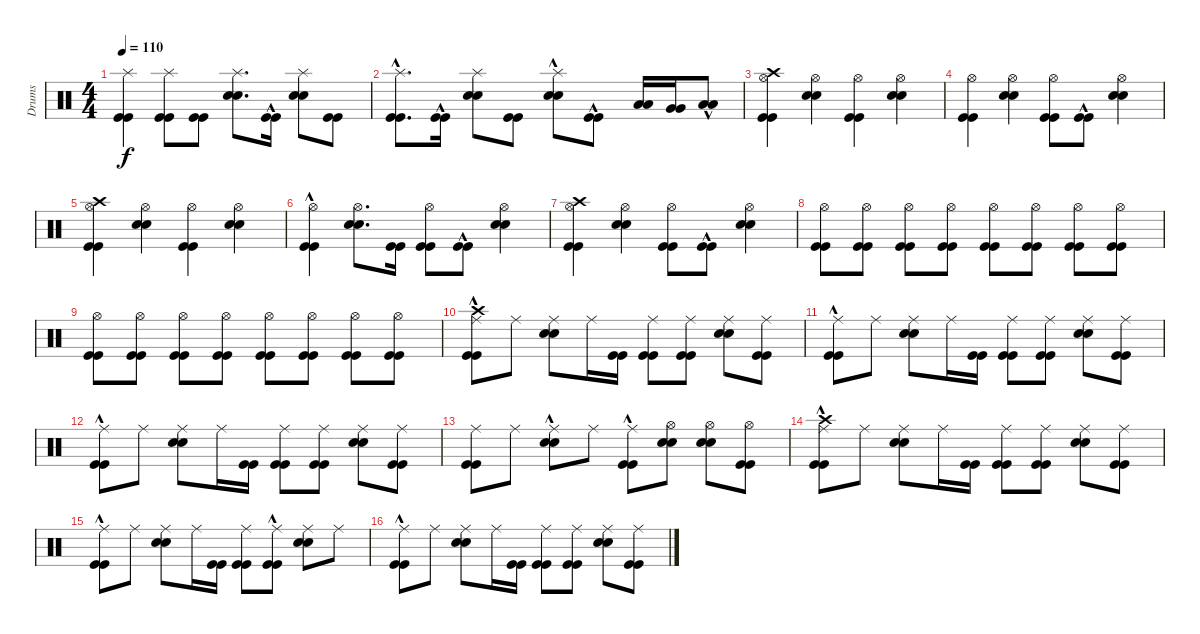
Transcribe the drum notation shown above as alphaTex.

\track ("Drums" "Drums") {instrument percussion}
\staff {score}
\articulation defaults
\ts (4 4)
\tempo 110
\clef neutral
\ks c
("Kick (hit)" "Kick (hit)" "Splash (hit)").4{dy f} ("Kick (hit)" "Kick (hit)" "Splash (hit)").8 ("Kick (hit)" "Kick (hit)").8 ("Snare (hit) 2" "Snare (hit) 2" "Splash (hit)").8{d} ("Kick (hit)"{hac} "Kick (hit)"{hac}).16 ("Snare (hit) 2" "Snare (hit) 2" "Splash (hit)").8 ("Kick (hit)" "Kick (hit)").8 |
("Kick (hit)"{hac} "Kick (hit)"{hac} "Splash (hit)").8{d} ("Kick (hit)"{hac} "Kick (hit)"{hac}).16 ("Snare (hit) 2" "Snare (hit) 2" "Splash (hit)").8 ("Kick (hit)" "Kick (hit)").8 ("Snare (hit) 2"{hac} "Snare (hit) 2"{hac} "Splash (hit)").8 ("Kick (hit)"{hac} "Kick (hit)"{hac}).8 ("Low Tom (hit)" "Low Tom (hit)").16 ("Very Low Tom (hit)" "Very Low Tom (hit)").16 ("Low Floor Tom (hit)"{hac} "Low Floor Tom (hit)"{hac}).8 |
("Kick (hit)" "Kick (hit)" "Hi-Hat (open)" "Crash high (hit)").4 ("Snare (hit) 2" "Snare (hit) 2" "Hi-Hat (open)").4 ("Kick (hit)" "Kick (hit)" "Hi-Hat (open)").4 ("Snare (hit) 2" "Snare (hit) 2" "Hi-Hat (open)").4 |
("Kick (hit)" "Kick (hit)" "Hi-Hat (open)").4 ("Snare (hit) 2" "Snare (hit) 2" "Hi-Hat (open)").4 ("Kick (hit)" "Kick (hit)" "Hi-Hat (open)").8 ("Kick (hit)"{hac} "Kick (hit)"{hac}).8 ("Snare (hit) 2" "Snare (hit) 2" "Hi-Hat (open)").4 |
("Kick (hit)" "Kick (hit)" "Hi-Hat (open)" "Crash high (hit)").4 ("Snare (hit) 2" "Snare (hit) 2" "Hi-Hat (open)").4 ("Kick (hit)" "Kick (hit)" "Hi-Hat (open)").4 ("Snare (hit) 2" "Snare (hit) 2" "Hi-Hat (open)").4 |
("Kick (hit)"{hac} "Kick (hit)"{hac} "Hi-Hat (open)").4 ("Snare (hit) 2" "Snare (hit) 2" "Hi-Hat (open)").8{d} ("Kick (hit)" "Kick (hit)").16 ("Kick (hit)" "Kick (hit)" "Hi-Hat (open)").8 ("Kick (hit)"{hac} "Kick (hit)"{hac}).8 ("Snare (hit) 2" "Snare (hit) 2" "Hi-Hat (open)").4 |
("Kick (hit)" "Kick (hit)" "Hi-Hat (open)" "Crash high (hit)").4 ("Snare (hit) 2" "Snare (hit) 2" "Hi-Hat (open)").4 ("Kick (hit)" "Kick (hit)" "Hi-Hat (open)").8 ("Kick (hit)"{hac} "Kick (hit)"{hac}).8 ("Snare (hit) 2" "Snare (hit) 2" "Hi-Hat (open)").4 |
("Kick (hit)" "Kick (hit)" "Hi-Hat (open)").8 ("Kick (hit)" "Kick (hit)" "Hi-Hat (open)").8 ("Kick (hit)" "Kick (hit)" "Hi-Hat (open)").8 ("Kick (hit)" "Kick (hit)" "Hi-Hat (open)").8 ("Kick (hit)" "Kick (hit)" "Hi-Hat (open)").8 ("Kick (hit)" "Kick (hit)" "Hi-Hat (open)").8 ("Kick (hit)" "Kick (hit)" "Hi-Hat (open)").8 ("Kick (hit)" "Kick (hit)" "Hi-Hat (open)").8 |
("Kick (hit)" "Kick (hit)" "Hi-Hat (open)").8 ("Kick (hit)" "Kick (hit)" "Hi-Hat (open)").8 ("Kick (hit)" "Kick (hit)" "Hi-Hat (open)").8 ("Kick (hit)" "Kick (hit)" "Hi-Hat (open)").8 ("Kick (hit)" "Kick (hit)" "Hi-Hat (open)").8 ("Kick (hit)" "Kick (hit)" "Hi-Hat (open)").8 ("Kick (hit)" "Kick (hit)" "Hi-Hat (open)").8 ("Kick (hit)" "Kick (hit)" "Hi-Hat (open)").8 |
("Kick (hit)"{hac} "Kick (hit)"{hac} "Ride (middle)" "Crash high (hit)").8 "Ride (middle)".8 ("Snare (hit) 2" "Snare (hit) 2" "Ride (middle)").8 "Ride (middle)".16 ("Kick (hit)" "Kick (hit)").16 ("Kick (hit)" "Kick (hit)" "Ride (middle)").8 ("Kick (hit)" "Kick (hit)" "Ride (middle)").8 ("Snare (hit) 2" "Snare (hit) 2" "Ride (middle)").8 ("Kick (hit)" "Kick (hit)" "Ride (middle)").8 |
("Kick (hit)"{hac} "Kick (hit)"{hac} "Ride (middle)").8 "Ride (middle)".8 ("Snare (hit) 2" "Snare (hit) 2" "Ride (middle)").8 "Ride (middle)".16 ("Kick (hit)" "Kick (hit)").16 ("Kick (hit)" "Kick (hit)" "Ride (middle)").8 ("Kick (hit)" "Kick (hit)" "Ride (middle)").8 ("Snare (hit) 2" "Snare (hit) 2" "Ride (middle)").8 ("Kick (hit)" "Kick (hit)" "Ride (middle)").8 |
("Kick (hit)"{hac} "Kick (hit)"{hac} "Ride (middle)").8 "Ride (middle)".8 ("Snare (hit) 2" "Snare (hit) 2" "Ride (middle)").8 "Ride (middle)".16 ("Kick (hit)" "Kick (hit)").16 ("Kick (hit)" "Kick (hit)" "Ride (middle)").8 ("Kick (hit)" "Kick (hit)" "Ride (middle)").8 ("Snare (hit) 2" "Snare (hit) 2" "Ride (middle)").8 ("Kick (hit)" "Kick (hit)" "Ride (middle)").8 |
("Kick (hit)" "Kick (hit)" "Ride (middle)").8 "Ride (middle)".8 ("Snare (hit) 2"{hac} "Snare (hit) 2"{hac} "Ride (middle)").8 "Ride (middle)".8 ("Kick (hit)"{hac} "Kick (hit)"{hac} "Ride (middle)").8 ("Snare (hit) 2" "Snare (hit) 2" "Hi-Hat (open)").8 ("Snare (hit) 2" "Snare (hit) 2" "Hi-Hat (open)").8 ("Kick (hit)" "Kick (hit)" "Hi-Hat (open)").8 |
("Kick (hit)"{hac} "Kick (hit)"{hac} "Ride (middle)" "Crash high (hit)").8 "Ride (middle)".8 ("Snare (hit) 2" "Snare (hit) 2" "Ride (middle)").8 "Ride (middle)".16 ("Kick (hit)" "Kick (hit)").16 ("Kick (hit)" "Kick (hit)" "Ride (middle)").8 ("Kick (hit)" "Kick (hit)" "Ride (middle)").8 ("Snare (hit) 2" "Snare (hit) 2" "Ride (middle)").8 ("Kick (hit)" "Kick (hit)" "Ride (middle)").8 |
("Kick (hit)"{hac} "Kick (hit)"{hac} "Ride (middle)").8 "Ride (middle)".8 ("Snare (hit) 2" "Snare (hit) 2" "Ride (middle)").8 "Ride (middle)".16 ("Kick (hit)" "Kick (hit)").16 ("Kick (hit)" "Kick (hit)" "Ride (middle)").8 ("Kick (hit)"{hac} "Kick (hit)"{hac} "Ride (middle)").8 ("Snare (hit) 2" "Snare (hit) 2" "Ride (middle)").8 "Ride (middle)".8 |
("Kick (hit)"{hac} "Kick (hit)"{hac} "Ride (middle)").8 "Ride (middle)".8 ("Snare (hit) 2" "Snare (hit) 2" "Ride (middle)").8 "Ride (middle)".16 ("Kick (hit)" "Kick (hit)").16 ("Kick (hit)" "Kick (hit)" "Ride (middle)").8 ("Kick (hit)" "Kick (hit)" "Ride (middle)").8 ("Snare (hit) 2" "Snare (hit) 2" "Ride (middle)").8 ("Kick (hit)" "Kick (hit)" "Ride (middle)").8
